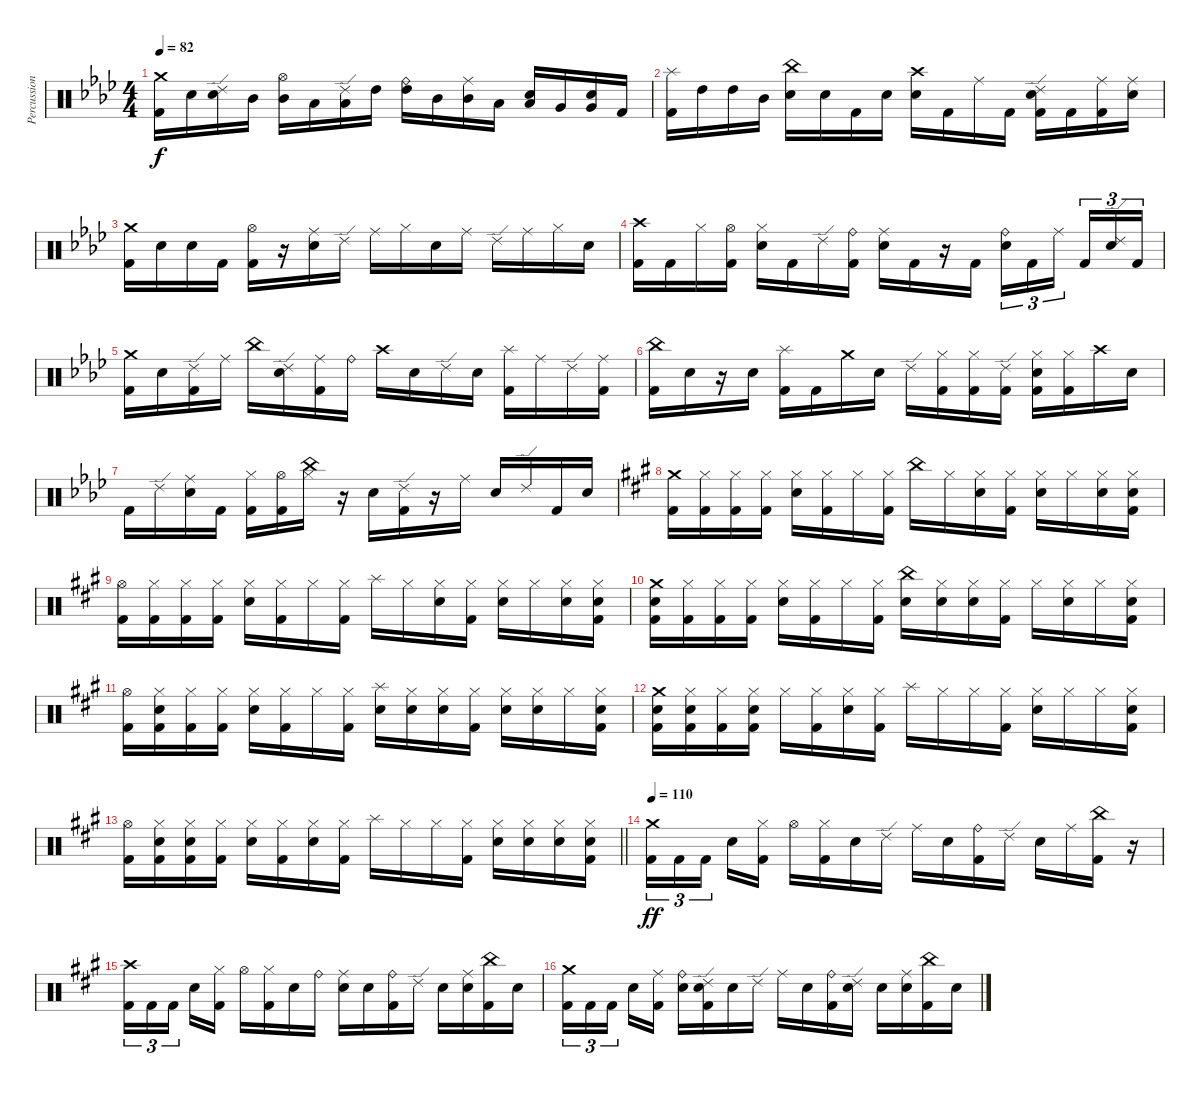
\track ("Percussion" "Percussion") {instrument percussion}
\staff {score}
\articulation defaults
\ts (4 4)
\tempo 82
\clef neutral
\ks ab
("Crash medium (hit)" "Kick (hit) 2").16{dy f} "Electric Snare (hit)".16 ("Ride (edge) 2" "Electric Snare (hit)").16 "Mid Tom (hit)".16 ("Hi-Hat (open)" "Mid Tom (hit)").16 "Low Tom (hit)".16 ("Ride (edge) 2" "Low Tom (hit)").16 "High Tom (hit)".16 ("Ride (bell)" "High Tom (hit)").16 "Mid Tom (hit)".16 ("Ride (middle)" "Mid Tom (hit)").16 "Low Tom (hit)".16 ("Electric Snare (hit)" "Low Tom (hit)").16 "Very Low Tom (hit)".16 ("Electric Snare (hit)" "Very Low Tom (hit)").16 "Kick (hit) 2".16 |
("Splash (hit)" "Kick (hit) 2").16 "High Tom (hit)".16 "High Tom (hit)".16 "Mid Tom (hit)".16 ("China (hit)" "Electric Snare (hit)").16 "Electric Snare (hit)".16 "Kick (hit) 2".16 "Electric Snare (hit)".16 ("Crash high (hit)" "Electric Snare (hit)").16 "Kick (hit) 2".16 "Ride (middle)".16 "Kick (hit) 2".16 ("Ride (edge) 2" "Electric Snare (hit)" "Kick (hit) 2").16 "Kick (hit) 2".16 ("Ride (middle)" "Kick (hit) 2").16 ("Ride (middle)" "Electric Snare (hit)").16 |
("Crash medium (hit)" "Kick (hit) 2").16 "Electric Snare (hit)".16 "Electric Snare (hit)".16 "Kick (hit) 2".16 ("Hi-Hat (open)" "Kick (hit) 2").16 r.16 ("Ride (middle)" "Electric Snare (hit)").16 "Ride (edge) 2".16 "Ride (middle)".16 "Hi-Hat (closed)".16 "Electric Snare (hit)".16 "Ride (middle)".16 "Ride (edge) 2".16 "Ride (middle)".16 "Hi-Hat (closed)".16 "Electric Snare (hit)".16 |
("Crash high (hit)" "Kick (hit) 2").16 "Kick (hit) 2".16 "Hi-Hat (closed)".16 ("Hi-Hat (open)" "Kick (hit) 2").16 ("Hi-Hat (closed)" "Electric Snare (hit)").16 "Kick (hit) 2".16 "Ride (edge) 2".16 ("Ride (bell)" "Kick (hit) 2").16 ("Ride (middle)" "Electric Snare (hit)").16 "Kick (hit) 2".16 r.16 "Kick (hit) 2".16 ("Ride (bell)" "Electric Snare (hit)").16{tu (3 2)} "Kick (hit) 2".16{tu (3 2)} "Ride (middle)".16{tu (3 2) beam splitsecondary} "Kick (hit) 2".16{tu (3 2)} ("Ride (edge) 2" "Electric Snare (hit)").16{tu (3 2)} "Kick (hit) 2".16{tu (3 2)} |
("Crash medium (hit)" "Kick (hit) 2").16 "Electric Snare (hit)".16 ("Ride (edge) 2" "Kick (hit) 2").16 "Ride (middle)".16 "China (hit)".16 ("Ride (edge) 2" "Electric Snare (hit)").16 ("Ride (middle)" "Kick (hit) 2").16 "Ride (bell)".16 "Crash high (hit)".16 "Electric Snare (hit)".16 "Ride (edge) 2".16 "Electric Snare (hit)".16 ("Splash (hit)" "Kick (hit) 2").16 "Ride (middle)".16 "Ride (edge) 2".16 ("Ride (middle)" "Kick (hit) 2").16 |
("China (hit)" "Kick (hit) 2").16 "Electric Snare (hit)".16 r.16 "Electric Snare (hit)".16 ("Splash (hit)" "Kick (hit) 2").16 "Kick (hit) 2".16 "Crash medium (hit)".16 "Electric Snare (hit)".16 "Ride (edge) 2".16 ("Hi-Hat (closed)" "Kick (hit) 2").16 ("Hi-Hat (closed)" "Kick (hit) 2").16 ("Ride (edge) 2" "Kick (hit) 2").16 ("Hi-Hat (closed)" "Electric Snare (hit)" "Kick (hit) 2").16 ("Hi-Hat (closed)" "Kick (hit) 2").16 "Crash high (hit)".16 "Electric Snare (hit)".16 |
"Kick (hit) 2".16 "Ride (edge) 2".16 ("Ride (middle)" "Electric Snare (hit)").16 "Kick (hit) 2".16 ("Hi-Hat (closed)" "Kick (hit) 2").16 ("Hi-Hat (open)" "Kick (hit) 2").16 ("China (hit)" "Hi-Hat (closed)").16 r.16 "Electric Snare (hit)".16 ("Ride (edge) 2" "Kick (hit) 2").16 r.16 "Ride (middle)".16 "Electric Snare (hit)".16 "Ride (edge) 2".16 "Kick (hit) 2".16 "Electric Snare (hit)".16 |
\ks a
("Crash medium (hit)" "Kick (hit) 2").16 ("Hi-Hat (closed)" "Kick (hit) 2").16 ("Hi-Hat (closed)" "Kick (hit) 2").16 ("Hi-Hat (closed)" "Kick (hit) 2").16 ("Hi-Hat (closed)" "Electric Snare (hit)").16 ("Hi-Hat (closed)" "Kick (hit) 2").16 "Hi-Hat (closed)".16 ("Hi-Hat (closed)" "Kick (hit) 2").16 "China (hit)".16 "Hi-Hat (closed)".16 ("Hi-Hat (closed)" "Electric Snare (hit)").16 ("Hi-Hat (closed)" "Kick (hit) 2").16 ("Hi-Hat (closed)" "Electric Snare (hit)").16 "Hi-Hat (closed)".16 ("Hi-Hat (closed)" "Electric Snare (hit)").16 ("Hi-Hat (closed)" "Electric Snare (hit)" "Kick (hit) 2").16 |
("Hi-Hat (open)" "Kick (hit) 2").16 ("Hi-Hat (closed)" "Kick (hit) 2").16 ("Hi-Hat (closed)" "Kick (hit) 2").16 ("Hi-Hat (closed)" "Kick (hit) 2").16 ("Hi-Hat (closed)" "Electric Snare (hit)").16 ("Hi-Hat (closed)" "Kick (hit) 2").16 "Hi-Hat (closed)".16 ("Hi-Hat (closed)" "Kick (hit) 2").16 "Splash (hit)".16 "Hi-Hat (closed)".16 ("Hi-Hat (closed)" "Electric Snare (hit)").16 ("Hi-Hat (closed)" "Kick (hit) 2").16 ("Hi-Hat (closed)" "Electric Snare (hit)").16 "Hi-Hat (closed)".16 ("Hi-Hat (closed)" "Electric Snare (hit)").16 ("Hi-Hat (closed)" "Electric Snare (hit)" "Kick (hit) 2").16 |
("Crash medium (hit)" "Electric Snare (hit)" "Kick (hit) 2").16 ("Hi-Hat (closed)" "Kick (hit) 2").16 ("Hi-Hat (closed)" "Kick (hit) 2").16 ("Hi-Hat (closed)" "Kick (hit) 2").16 ("Hi-Hat (closed)" "Electric Snare (hit)").16 ("Hi-Hat (closed)" "Kick (hit) 2").16 "Hi-Hat (closed)".16 ("Hi-Hat (closed)" "Kick (hit) 2").16 ("China (hit)" "Electric Snare (hit)").16 ("Hi-Hat (closed)" "Electric Snare (hit)").16 ("Hi-Hat (closed)" "Electric Snare (hit)").16 ("Hi-Hat (closed)" "Kick (hit) 2").16 "Hi-Hat (closed)".16 ("Hi-Hat (closed)" "Electric Snare (hit)").16 "Hi-Hat (closed)".16 ("Hi-Hat (closed)" "Electric Snare (hit)" "Kick (hit) 2").16 |
("Hi-Hat (open)" "Kick (hit) 2").16 ("Hi-Hat (closed)" "Electric Snare (hit)" "Kick (hit) 2").16 ("Hi-Hat (closed)" "Kick (hit) 2").16 ("Hi-Hat (closed)" "Kick (hit) 2").16 ("Hi-Hat (closed)" "Electric Snare (hit)").16 ("Hi-Hat (closed)" "Kick (hit) 2").16 "Hi-Hat (closed)".16 ("Hi-Hat (closed)" "Kick (hit) 2").16 ("Splash (hit)" "Electric Snare (hit)").16 ("Hi-Hat (closed)" "Electric Snare (hit)").16 ("Hi-Hat (closed)" "Electric Snare (hit)").16 ("Hi-Hat (closed)" "Kick (hit) 2").16 ("Hi-Hat (closed)" "Electric Snare (hit)").16 ("Hi-Hat (closed)" "Electric Snare (hit)").16 "Hi-Hat (closed)".16 ("Hi-Hat (closed)" "Electric Snare (hit)" "Kick (hit) 2").16 |
("Crash medium (hit)" "Electric Snare (hit)" "Kick (hit) 2").16 ("Hi-Hat (closed)" "Electric Snare (hit)" "Kick (hit) 2").16 ("Hi-Hat (closed)" "Kick (hit) 2").16 ("Hi-Hat (closed)" "Electric Snare (hit)" "Kick (hit) 2").16 "Hi-Hat (closed)".16 ("Hi-Hat (closed)" "Kick (hit) 2").16 ("Hi-Hat (closed)" "Electric Snare (hit)").16 ("Hi-Hat (closed)" "Kick (hit) 2").16 "Splash (hit)".16 "Hi-Hat (closed)".16 "Hi-Hat (closed)".16 ("Hi-Hat (closed)" "Kick (hit) 2").16 ("Hi-Hat (closed)" "Electric Snare (hit)").16 "Hi-Hat (closed)".16 "Hi-Hat (closed)".16 ("Hi-Hat (closed)" "Electric Snare (hit)" "Kick (hit) 2").16 |
\barLineRight lightlight
("Hi-Hat (open)" "Kick (hit) 2").16 ("Hi-Hat (closed)" "Electric Snare (hit)" "Kick (hit) 2").16 ("Hi-Hat (closed)" "Electric Snare (hit)" "Kick (hit) 2").16 ("Hi-Hat (closed)" "Kick (hit) 2").16 ("Hi-Hat (closed)" "Electric Snare (hit)").16 ("Hi-Hat (closed)" "Kick (hit) 2").16 ("Hi-Hat (closed)" "Electric Snare (hit)").16 ("Hi-Hat (closed)" "Kick (hit) 2").16 "Splash (hit)".16 "Hi-Hat (closed)".16 "Hi-Hat (closed)".16 ("Hi-Hat (closed)" "Kick (hit) 2").16 ("Hi-Hat (closed)" "Electric Snare (hit)").16 ("Hi-Hat (closed)" "Electric Snare (hit)").16 ("Hi-Hat (closed)" "Electric Snare (hit)").16 ("Hi-Hat (closed)" "Electric Snare (hit)" "Kick (hit) 2").16 |
\tempo 110
("Crash medium (hit)" "Kick (hit) 2").16{tu (3 2) dy ff} "Kick (hit) 2".16{tu (3 2)} "Kick (hit) 2".16{tu (3 2) beam splitsecondary} "Electric Snare (hit)".16 ("Hi-Hat (closed)" "Kick (hit) 2").16 "Hi-Hat (open)".16 ("Hi-Hat (closed)" "Kick (hit) 2").16 "Electric Snare (hit)".16 "Ride (edge) 2".16 "Ride (middle)".16 "Electric Snare (hit)".16 ("Ride (bell)" "Kick (hit) 2").16 "Ride (edge) 2".16 "Electric Snare (hit)".16 "Ride (middle)".16 ("China (hit)" "Kick (hit) 2").16 r.16 |
("Crash high (hit)" "Kick (hit) 2").16{tu (3 2)} "Kick (hit) 2".16{tu (3 2)} "Kick (hit) 2".16{tu (3 2) beam splitsecondary} "Electric Snare (hit)".16 ("Hi-Hat (closed)" "Kick (hit) 2").16 "Hi-Hat (open)".16 ("Hi-Hat (closed)" "Kick (hit) 2").16 "Electric Snare (hit)".16 "Ride (bell)".16 ("Ride (middle)" "Electric Snare (hit)").16 "Electric Snare (hit)".16 ("Ride (bell)" "Kick (hit) 2").16 "Ride (edge) 2".16 "Electric Snare (hit)".16 ("Ride (middle)" "Electric Snare (hit)").16 ("China (hit)" "Kick (hit) 2").16 "Electric Snare (hit)".16 |
("Crash medium (hit)" "Kick (hit) 2").16{tu (3 2)} "Kick (hit) 2".16{tu (3 2)} "Kick (hit) 2".16{tu (3 2) beam splitsecondary} "Electric Snare (hit)".16 ("Ride (middle)" "Kick (hit) 2").16 ("Ride (bell)" "Electric Snare (hit)").16 ("Ride (edge) 2" "Electric Snare (hit)" "Kick (hit) 2").16 "Electric Snare (hit)".16 "Ride (edge) 2".16 "Ride (middle)".16 "Electric Snare (hit)".16 ("Ride (bell)" "Kick (hit) 2").16 ("Ride (edge) 2" "Electric Snare (hit)").16 "Electric Snare (hit)".16 ("Ride (middle)" "Electric Snare (hit)").16 ("China (hit)" "Kick (hit) 2").16 "Electric Snare (hit)".16
